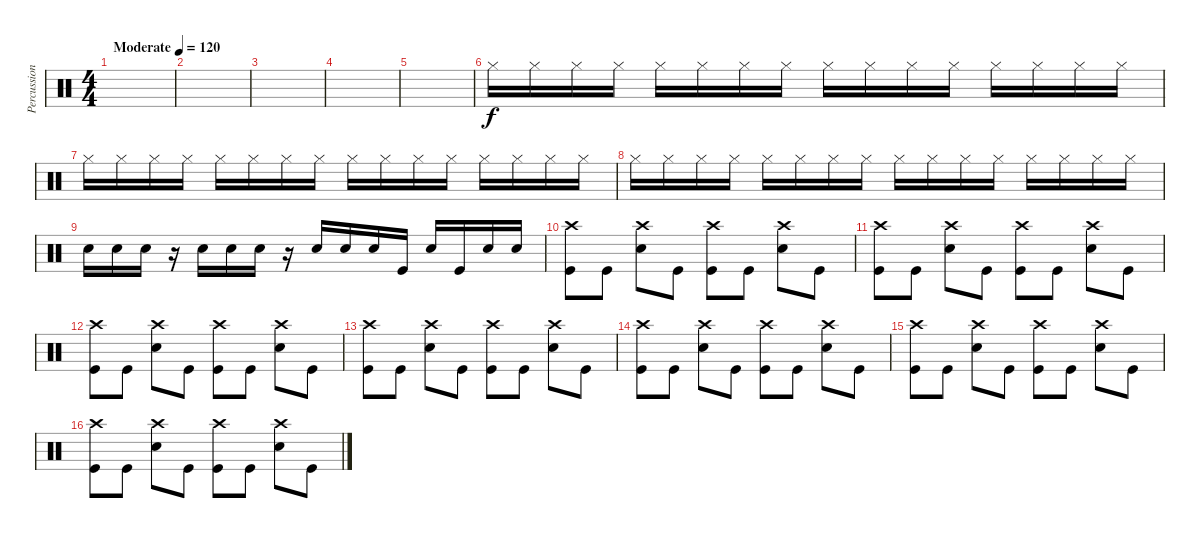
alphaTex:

\track ("Percussion" "Percussion") {instrument percussion}
\staff {score}
\articulation defaults
\ts (4 4)
\tempo (120 "Moderate")
\clef neutral
\ks c
|
|
|
|
|
"Hi-Hat (closed)".16 "Hi-Hat (closed)".16 "Hi-Hat (closed)".16 "Hi-Hat (closed)".16 "Hi-Hat (closed)".16 "Hi-Hat (closed)".16 "Hi-Hat (closed)".16 "Hi-Hat (closed)".16 "Hi-Hat (closed)".16 "Hi-Hat (closed)".16 "Hi-Hat (closed)".16 "Hi-Hat (closed)".16 "Hi-Hat (closed)".16 "Hi-Hat (closed)".16 "Hi-Hat (closed)".16 "Hi-Hat (closed)".16 |
"Hi-Hat (closed)".16 "Hi-Hat (closed)".16 "Hi-Hat (closed)".16 "Hi-Hat (closed)".16 "Hi-Hat (closed)".16 "Hi-Hat (closed)".16 "Hi-Hat (closed)".16 "Hi-Hat (closed)".16 "Hi-Hat (closed)".16 "Hi-Hat (closed)".16 "Hi-Hat (closed)".16 "Hi-Hat (closed)".16 "Hi-Hat (closed)".16 "Hi-Hat (closed)".16 "Hi-Hat (closed)".16 "Hi-Hat (closed)".16 |
"Hi-Hat (closed)".16 "Hi-Hat (closed)".16 "Hi-Hat (closed)".16 "Hi-Hat (closed)".16 "Hi-Hat (closed)".16 "Hi-Hat (closed)".16 "Hi-Hat (closed)".16 "Hi-Hat (closed)".16 "Hi-Hat (closed)".16 "Hi-Hat (closed)".16 "Hi-Hat (closed)".16 "Hi-Hat (closed)".16 "Hi-Hat (closed)".16 "Hi-Hat (closed)".16 "Hi-Hat (closed)".16 "Hi-Hat (closed)".16 |
"Snare (hit) 2".16 "Snare (hit) 2".16 "Snare (hit) 2".16 r.16 "Snare (hit) 2".16 "Snare (hit) 2".16 "Snare (hit) 2".16 r.16 "Snare (hit) 2".16 "Snare (hit) 2".16 "Snare (hit) 2".16 "Kick (hit)".16 "Snare (hit) 2".16 "Kick (hit)".16 "Snare (hit) 2".16 "Snare (hit) 2".16 |
("Crash high (hit)" "Kick (hit)").8 "Kick (hit)".8 ("Crash high (hit)" "Snare (hit) 2").8 "Kick (hit)".8 ("Crash high (hit)" "Kick (hit)").8 "Kick (hit)".8 ("Crash high (hit)" "Snare (hit) 2").8 "Kick (hit)".8 |
("Crash high (hit)" "Kick (hit)").8 "Kick (hit)".8 ("Crash high (hit)" "Snare (hit) 2").8 "Kick (hit)".8 ("Crash high (hit)" "Kick (hit)").8 "Kick (hit)".8 ("Crash high (hit)" "Snare (hit) 2").8 "Kick (hit)".8 |
("Crash high (hit)" "Kick (hit)").8 "Kick (hit)".8 ("Crash high (hit)" "Snare (hit) 2").8 "Kick (hit)".8 ("Crash high (hit)" "Kick (hit)").8 "Kick (hit)".8 ("Crash high (hit)" "Snare (hit) 2").8 "Kick (hit)".8 |
("Crash high (hit)" "Kick (hit)").8 "Kick (hit)".8 ("Crash high (hit)" "Snare (hit) 2").8 "Kick (hit)".8 ("Crash high (hit)" "Kick (hit)").8 "Kick (hit)".8 ("Crash high (hit)" "Snare (hit) 2").8 "Kick (hit)".8 |
("Crash high (hit)" "Kick (hit)").8 "Kick (hit)".8 ("Crash high (hit)" "Snare (hit) 2").8 "Kick (hit)".8 ("Crash high (hit)" "Kick (hit)").8 "Kick (hit)".8 ("Crash high (hit)" "Snare (hit) 2").8 "Kick (hit)".8 |
("Crash high (hit)" "Kick (hit)").8 "Kick (hit)".8 ("Crash high (hit)" "Snare (hit) 2").8 "Kick (hit)".8 ("Crash high (hit)" "Kick (hit)").8 "Kick (hit)".8 ("Crash high (hit)" "Snare (hit) 2").8 "Kick (hit)".8 |
("Crash high (hit)" "Kick (hit)").8 "Kick (hit)".8 ("Crash high (hit)" "Snare (hit) 2").8 "Kick (hit)".8 ("Crash high (hit)" "Kick (hit)").8 "Kick (hit)".8 ("Crash high (hit)" "Snare (hit) 2").8 "Kick (hit)".8
